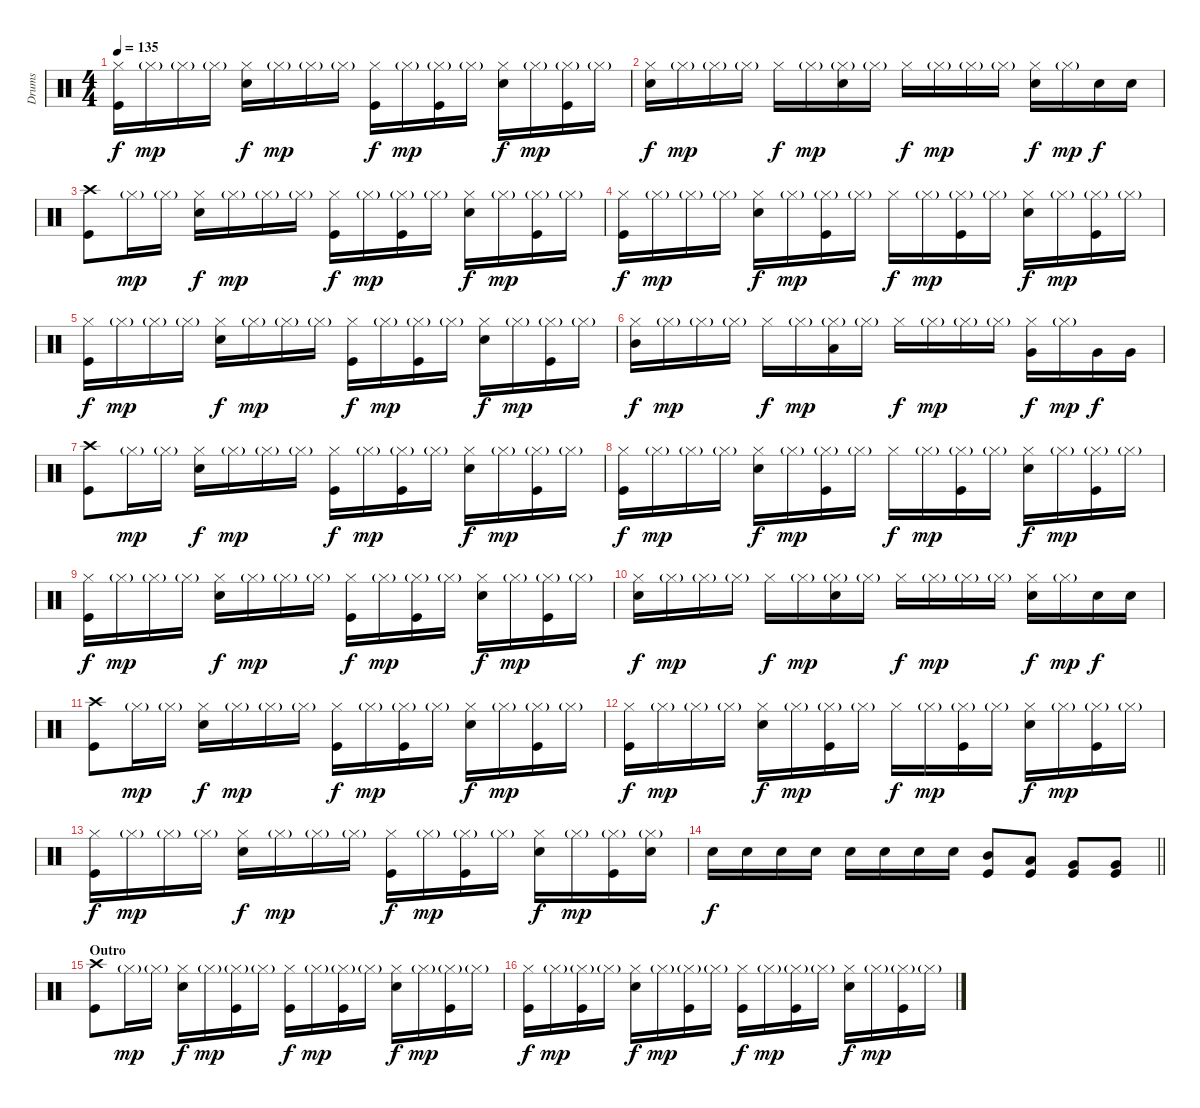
\track ("Drums" "Drums") {instrument percussion}
\staff {score}
\articulation defaults
\ts (4 4)
\tempo 135
\clef neutral
\ks c
("Hi-Hat (closed)" "Kick (hit)").16{dy f} "Hi-Hat (closed)"{g}.16{dy mp} "Hi-Hat (closed)"{g}.16 "Hi-Hat (closed)"{g}.16 ("Hi-Hat (closed)" "Snare (hit) 2").16{dy f} "Hi-Hat (closed)"{g}.16{dy mp} "Hi-Hat (closed)"{g}.16 "Hi-Hat (closed)"{g}.16 ("Hi-Hat (closed)" "Kick (hit)").16{dy f} "Hi-Hat (closed)"{g}.16{dy mp} ("Hi-Hat (closed)"{g} "Kick (hit)").16 "Hi-Hat (closed)"{g}.16 ("Hi-Hat (closed)" "Snare (hit) 2").16{dy f} "Hi-Hat (closed)"{g}.16{dy mp} ("Hi-Hat (closed)"{g} "Kick (hit)").16 "Hi-Hat (closed)"{g}.16 |
("Hi-Hat (closed)" "Snare (hit) 2").16{dy f} "Hi-Hat (closed)"{g}.16{dy mp} "Hi-Hat (closed)"{g}.16 "Hi-Hat (closed)"{g}.16 "Hi-Hat (closed)".16{dy f} "Hi-Hat (closed)"{g}.16{dy mp} ("Hi-Hat (closed)"{g} "Snare (hit) 2").16 "Hi-Hat (closed)"{g}.16 "Hi-Hat (closed)".16{dy f} "Hi-Hat (closed)"{g}.16{dy mp} "Hi-Hat (closed)"{g}.16 "Hi-Hat (closed)"{g}.16 ("Hi-Hat (closed)" "Snare (hit) 2").16{dy f} "Hi-Hat (closed)"{g}.16{dy mp} "Snare (hit) 2".16{dy f} "Snare (hit) 2".16 |
("Crash high (hit)" "Kick (hit)").8 "Hi-Hat (closed)"{g}.16{dy mp} "Hi-Hat (closed)"{g}.16 ("Hi-Hat (closed)" "Snare (hit) 2").16{dy f} "Hi-Hat (closed)"{g}.16{dy mp} "Hi-Hat (closed)"{g}.16 "Hi-Hat (closed)"{g}.16 ("Hi-Hat (closed)" "Kick (hit)").16{dy f} "Hi-Hat (closed)"{g}.16{dy mp} ("Hi-Hat (closed)"{g} "Kick (hit)").16 "Hi-Hat (closed)"{g}.16 ("Hi-Hat (closed)" "Snare (hit) 2").16{dy f} "Hi-Hat (closed)"{g}.16{dy mp} ("Hi-Hat (closed)"{g} "Kick (hit)").16 "Hi-Hat (closed)"{g}.16 |
("Hi-Hat (closed)" "Kick (hit)").16{dy f} "Hi-Hat (closed)"{g}.16{dy mp} "Hi-Hat (closed)"{g}.16 "Hi-Hat (closed)"{g}.16 ("Hi-Hat (closed)" "Snare (hit) 2").16{dy f} "Hi-Hat (closed)"{g}.16{dy mp} ("Hi-Hat (closed)"{g} "Kick (hit)").16 "Hi-Hat (closed)"{g}.16 "Hi-Hat (closed)".16{dy f} "Hi-Hat (closed)"{g}.16{dy mp} ("Hi-Hat (closed)"{g} "Kick (hit)").16 "Hi-Hat (closed)"{g}.16 ("Hi-Hat (closed)" "Snare (hit) 2").16{dy f} "Hi-Hat (closed)"{g}.16{dy mp} ("Hi-Hat (closed)"{g} "Kick (hit)").16 "Hi-Hat (closed)"{g}.16 |
("Hi-Hat (closed)" "Kick (hit)").16{dy f} "Hi-Hat (closed)"{g}.16{dy mp} "Hi-Hat (closed)"{g}.16 "Hi-Hat (closed)"{g}.16 ("Hi-Hat (closed)" "Snare (hit) 2").16{dy f} "Hi-Hat (closed)"{g}.16{dy mp} "Hi-Hat (closed)"{g}.16 "Hi-Hat (closed)"{g}.16 ("Hi-Hat (closed)" "Kick (hit)").16{dy f} "Hi-Hat (closed)"{g}.16{dy mp} ("Hi-Hat (closed)"{g} "Kick (hit)").16 "Hi-Hat (closed)"{g}.16 ("Hi-Hat (closed)" "Snare (hit) 2").16{dy f} "Hi-Hat (closed)"{g}.16{dy mp} ("Hi-Hat (closed)"{g} "Kick (hit)").16 "Hi-Hat (closed)"{g}.16 |
("Hi-Hat (closed)" "Mid Tom (hit)").16{dy f} "Hi-Hat (closed)"{g}.16{dy mp} "Hi-Hat (closed)"{g}.16 "Hi-Hat (closed)"{g}.16 "Hi-Hat (closed)".16{dy f} "Hi-Hat (closed)"{g}.16{dy mp} ("Hi-Hat (closed)"{g} "Low Tom (hit)").16 "Hi-Hat (closed)"{g}.16 "Hi-Hat (closed)".16{dy f} "Hi-Hat (closed)"{g}.16{dy mp} "Hi-Hat (closed)"{g}.16 "Hi-Hat (closed)"{g}.16 ("Hi-Hat (closed)" "Very Low Tom (hit)").16{dy f} "Hi-Hat (closed)"{g}.16{dy mp} "Very Low Tom (hit)".16{dy f} "Very Low Tom (hit)".16 |
("Crash high (hit)" "Kick (hit)").8 "Hi-Hat (closed)"{g}.16{dy mp} "Hi-Hat (closed)"{g}.16 ("Hi-Hat (closed)" "Snare (hit) 2").16{dy f} "Hi-Hat (closed)"{g}.16{dy mp} "Hi-Hat (closed)"{g}.16 "Hi-Hat (closed)"{g}.16 ("Hi-Hat (closed)" "Kick (hit)").16{dy f} "Hi-Hat (closed)"{g}.16{dy mp} ("Hi-Hat (closed)"{g} "Kick (hit)").16 "Hi-Hat (closed)"{g}.16 ("Hi-Hat (closed)" "Snare (hit) 2").16{dy f} "Hi-Hat (closed)"{g}.16{dy mp} ("Hi-Hat (closed)"{g} "Kick (hit)").16 "Hi-Hat (closed)"{g}.16 |
("Hi-Hat (closed)" "Kick (hit)").16{dy f} "Hi-Hat (closed)"{g}.16{dy mp} "Hi-Hat (closed)"{g}.16 "Hi-Hat (closed)"{g}.16 ("Hi-Hat (closed)" "Snare (hit) 2").16{dy f} "Hi-Hat (closed)"{g}.16{dy mp} ("Hi-Hat (closed)"{g} "Kick (hit)").16 "Hi-Hat (closed)"{g}.16 "Hi-Hat (closed)".16{dy f} "Hi-Hat (closed)"{g}.16{dy mp} ("Hi-Hat (closed)"{g} "Kick (hit)").16 "Hi-Hat (closed)"{g}.16 ("Hi-Hat (closed)" "Snare (hit) 2").16{dy f} "Hi-Hat (closed)"{g}.16{dy mp} ("Hi-Hat (closed)"{g} "Kick (hit)").16 "Hi-Hat (closed)"{g}.16 |
("Hi-Hat (closed)" "Kick (hit)").16{dy f} "Hi-Hat (closed)"{g}.16{dy mp} "Hi-Hat (closed)"{g}.16 "Hi-Hat (closed)"{g}.16 ("Hi-Hat (closed)" "Snare (hit) 2").16{dy f} "Hi-Hat (closed)"{g}.16{dy mp} "Hi-Hat (closed)"{g}.16 "Hi-Hat (closed)"{g}.16 ("Hi-Hat (closed)" "Kick (hit)").16{dy f} "Hi-Hat (closed)"{g}.16{dy mp} ("Hi-Hat (closed)"{g} "Kick (hit)").16 "Hi-Hat (closed)"{g}.16 ("Hi-Hat (closed)" "Snare (hit) 2").16{dy f} "Hi-Hat (closed)"{g}.16{dy mp} ("Hi-Hat (closed)"{g} "Kick (hit)").16 "Hi-Hat (closed)"{g}.16 |
("Hi-Hat (closed)" "Snare (hit) 2").16{dy f} "Hi-Hat (closed)"{g}.16{dy mp} "Hi-Hat (closed)"{g}.16 "Hi-Hat (closed)"{g}.16 "Hi-Hat (closed)".16{dy f} "Hi-Hat (closed)"{g}.16{dy mp} ("Hi-Hat (closed)"{g} "Snare (hit) 2").16 "Hi-Hat (closed)"{g}.16 "Hi-Hat (closed)".16{dy f} "Hi-Hat (closed)"{g}.16{dy mp} "Hi-Hat (closed)"{g}.16 "Hi-Hat (closed)"{g}.16 ("Hi-Hat (closed)" "Snare (hit) 2").16{dy f} "Hi-Hat (closed)"{g}.16{dy mp} "Snare (hit) 2".16{dy f} "Snare (hit) 2".16 |
("Crash high (hit)" "Kick (hit)").8 "Hi-Hat (closed)"{g}.16{dy mp} "Hi-Hat (closed)"{g}.16 ("Hi-Hat (closed)" "Snare (hit) 2").16{dy f} "Hi-Hat (closed)"{g}.16{dy mp} "Hi-Hat (closed)"{g}.16 "Hi-Hat (closed)"{g}.16 ("Hi-Hat (closed)" "Kick (hit)").16{dy f} "Hi-Hat (closed)"{g}.16{dy mp} ("Hi-Hat (closed)"{g} "Kick (hit)").16 "Hi-Hat (closed)"{g}.16 ("Hi-Hat (closed)" "Snare (hit) 2").16{dy f} "Hi-Hat (closed)"{g}.16{dy mp} ("Hi-Hat (closed)"{g} "Kick (hit)").16 "Hi-Hat (closed)"{g}.16 |
("Hi-Hat (closed)" "Kick (hit)").16{dy f} "Hi-Hat (closed)"{g}.16{dy mp} "Hi-Hat (closed)"{g}.16 "Hi-Hat (closed)"{g}.16 ("Hi-Hat (closed)" "Snare (hit) 2").16{dy f} "Hi-Hat (closed)"{g}.16{dy mp} ("Hi-Hat (closed)"{g} "Kick (hit)").16 "Hi-Hat (closed)"{g}.16 "Hi-Hat (closed)".16{dy f} "Hi-Hat (closed)"{g}.16{dy mp} ("Hi-Hat (closed)"{g} "Kick (hit)").16 "Hi-Hat (closed)"{g}.16 ("Hi-Hat (closed)" "Snare (hit) 2").16{dy f} "Hi-Hat (closed)"{g}.16{dy mp} ("Hi-Hat (closed)"{g} "Kick (hit)").16 "Hi-Hat (closed)"{g}.16 |
("Hi-Hat (closed)" "Kick (hit)").16{dy f} "Hi-Hat (closed)"{g}.16{dy mp} "Hi-Hat (closed)"{g}.16 "Hi-Hat (closed)"{g}.16 ("Hi-Hat (closed)" "Snare (hit) 2").16{dy f} "Hi-Hat (closed)"{g}.16{dy mp} "Hi-Hat (closed)"{g}.16 "Hi-Hat (closed)"{g}.16 ("Hi-Hat (closed)" "Kick (hit)").16{dy f} "Hi-Hat (closed)"{g}.16{dy mp} ("Hi-Hat (closed)"{g} "Kick (hit)").16 "Hi-Hat (closed)"{g}.16 ("Hi-Hat (closed)" "Snare (hit) 2").16{dy f} "Hi-Hat (closed)"{g}.16{dy mp} ("Hi-Hat (closed)"{g} "Kick (hit)").16 ("Hi-Hat (closed)"{g} "Snare (hit) 2").16 |
\barLineRight lightlight "Snare (hit) 2".16{dy f} "Snare (hit) 2".16 "Snare (hit) 2".16 "Snare (hit) 2".16 "Snare (hit) 2".16 "Snare (hit) 2".16 "Snare (hit) 2".16 "Snare (hit) 2".16
("Mid Tom (hit)" "Kick (hit)").8 ("Low Tom (hit)" "Kick (hit)").8 ("Very Low Tom (hit)" "Kick (hit)").8 ("Very Low Tom (hit)" "Kick (hit)").8 |
\section ("" "Outro")
("Crash high (hit)" "Kick (hit)").8 "Hi-Hat (closed)"{g}.16{dy mp} "Hi-Hat (closed)"{g}.16 ("Hi-Hat (closed)" "Snare (hit) 2").16{dy f} "Hi-Hat (closed)"{g}.16{dy mp} ("Hi-Hat (closed)"{g} "Kick (hit)").16 "Hi-Hat (closed)"{g}.16 ("Hi-Hat (closed)" "Kick (hit)").16{dy f} "Hi-Hat (closed)"{g}.16{dy mp} ("Hi-Hat (closed)"{g} "Kick (hit)").16 "Hi-Hat (closed)"{g}.16 ("Hi-Hat (closed)" "Snare (hit) 2").16{dy f} "Hi-Hat (closed)"{g}.16{dy mp} ("Hi-Hat (closed)"{g} "Kick (hit)").16 "Hi-Hat (closed)"{g}.16 |
("Hi-Hat (closed)" "Kick (hit)").16{dy f} "Hi-Hat (closed)"{g}.16{dy mp} ("Hi-Hat (closed)"{g} "Kick (hit)").16 "Hi-Hat (closed)"{g}.16 ("Hi-Hat (closed)" "Snare (hit) 2").16{dy f} "Hi-Hat (closed)"{g}.16{dy mp} ("Hi-Hat (closed)"{g} "Kick (hit)").16 "Hi-Hat (closed)"{g}.16 ("Hi-Hat (closed)" "Kick (hit)").16{dy f} "Hi-Hat (closed)"{g}.16{dy mp} ("Hi-Hat (closed)"{g} "Kick (hit)").16 "Hi-Hat (closed)"{g}.16 ("Hi-Hat (closed)" "Snare (hit) 2").16{dy f} "Hi-Hat (closed)"{g}.16{dy mp} ("Hi-Hat (closed)"{g} "Kick (hit)").16 "Hi-Hat (closed)"{g}.16
